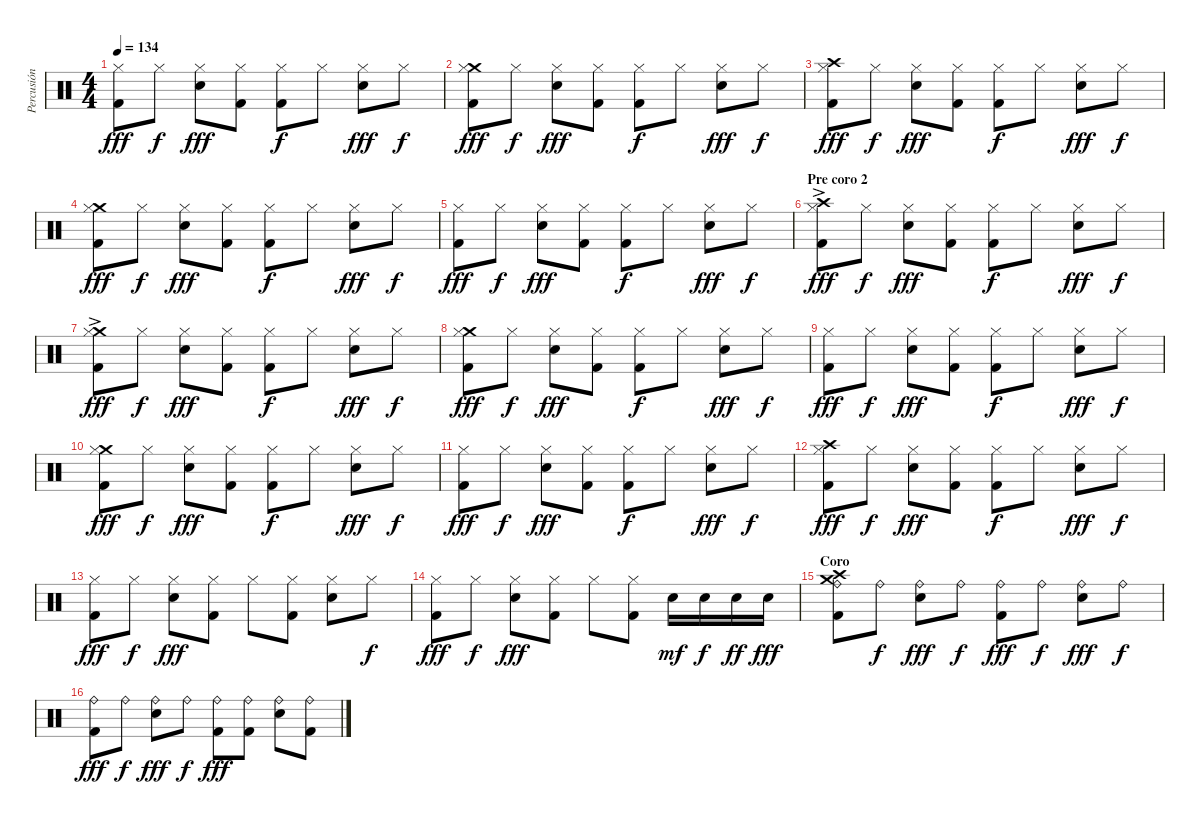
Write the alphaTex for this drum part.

\track ("Percusión" "Percusión") {instrument percussion}
\staff {score}
\articulation defaults
\ts (4 4)
\tempo 134
\clef neutral
\ks c
("Hi-Hat (closed)" "Kick (hit) 2").8{dy fff} "Hi-Hat (closed)".8{dy f} ("Hi-Hat (closed)" "Electric Snare (hit)").8{dy fff} ("Hi-Hat (closed)" "Kick (hit) 2").8 ("Hi-Hat (closed)" "Kick (hit) 2").8{dy f} "Hi-Hat (closed)".8 ("Hi-Hat (closed)" "Electric Snare (hit)").8{dy fff} "Hi-Hat (closed)".8{dy f} |
("Crash medium (hit)" "Hi-Hat (closed)" "Kick (hit) 2").8{dy fff} "Hi-Hat (closed)".8{dy f} ("Hi-Hat (closed)" "Electric Snare (hit)").8{dy fff} ("Hi-Hat (closed)" "Kick (hit) 2").8 ("Hi-Hat (closed)" "Kick (hit) 2").8{dy f} "Hi-Hat (closed)".8 ("Hi-Hat (closed)" "Electric Snare (hit)").8{dy fff} "Hi-Hat (closed)".8{dy f} |
("Crash high (hit)" "Hi-Hat (closed)" "Kick (hit) 2").8{dy fff} "Hi-Hat (closed)".8{dy f} ("Hi-Hat (closed)" "Electric Snare (hit)").8{dy fff} ("Hi-Hat (closed)" "Kick (hit) 2").8 ("Hi-Hat (closed)" "Kick (hit) 2").8{dy f} "Hi-Hat (closed)".8 ("Hi-Hat (closed)" "Electric Snare (hit)").8{dy fff} "Hi-Hat (closed)".8{dy f} |
("Crash medium (hit)" "Hi-Hat (closed)" "Kick (hit) 2").8{dy fff} "Hi-Hat (closed)".8{dy f} ("Hi-Hat (closed)" "Electric Snare (hit)").8{dy fff} ("Hi-Hat (closed)" "Kick (hit) 2").8 ("Hi-Hat (closed)" "Kick (hit) 2").8{dy f} "Hi-Hat (closed)".8 ("Hi-Hat (closed)" "Electric Snare (hit)").8{dy fff} "Hi-Hat (closed)".8{dy f} |
("Hi-Hat (closed)" "Kick (hit) 2").8{dy fff} "Hi-Hat (closed)".8{dy f} ("Hi-Hat (closed)" "Electric Snare (hit)").8{dy fff} ("Hi-Hat (closed)" "Kick (hit) 2").8 ("Hi-Hat (closed)" "Kick (hit) 2").8{dy f} "Hi-Hat (closed)".8 ("Hi-Hat (closed)" "Electric Snare (hit)").8{dy fff} "Hi-Hat (closed)".8{dy f} |
\section ("" "Pre coro 2")
("Crash high (hit)"{ac} "Hi-Hat (closed)" "Kick (hit) 2").8{dy fff} "Hi-Hat (closed)".8{dy f} ("Hi-Hat (closed)" "Electric Snare (hit)").8{dy fff} ("Hi-Hat (closed)" "Kick (hit) 2").8 ("Hi-Hat (closed)" "Kick (hit) 2").8{dy f} "Hi-Hat (closed)".8 ("Hi-Hat (closed)" "Electric Snare (hit)").8{dy fff} "Hi-Hat (closed)".8{dy f} |
("Crash medium (hit)"{ac} "Hi-Hat (closed)" "Kick (hit) 2").8{dy fff} "Hi-Hat (closed)".8{dy f} ("Hi-Hat (closed)" "Electric Snare (hit)").8{dy fff} ("Hi-Hat (closed)" "Kick (hit) 2").8 ("Hi-Hat (closed)" "Kick (hit) 2").8{dy f} "Hi-Hat (closed)".8 ("Hi-Hat (closed)" "Electric Snare (hit)").8{dy fff} "Hi-Hat (closed)".8{dy f} |
("Crash medium (hit)" "Hi-Hat (closed)" "Kick (hit) 2").8{dy fff} "Hi-Hat (closed)".8{dy f} ("Hi-Hat (closed)" "Electric Snare (hit)").8{dy fff} ("Hi-Hat (closed)" "Kick (hit) 2").8 ("Hi-Hat (closed)" "Kick (hit) 2").8{dy f} "Hi-Hat (closed)".8 ("Hi-Hat (closed)" "Electric Snare (hit)").8{dy fff} "Hi-Hat (closed)".8{dy f} |
("Hi-Hat (closed)" "Kick (hit) 2").8{dy fff} "Hi-Hat (closed)".8{dy f} ("Hi-Hat (closed)" "Electric Snare (hit)").8{dy fff} ("Hi-Hat (closed)" "Kick (hit) 2").8 ("Hi-Hat (closed)" "Kick (hit) 2").8{dy f} "Hi-Hat (closed)".8 ("Hi-Hat (closed)" "Electric Snare (hit)").8{dy fff} "Hi-Hat (closed)".8{dy f} |
("Crash medium (hit)" "Hi-Hat (closed)" "Kick (hit) 2").8{dy fff} "Hi-Hat (closed)".8{dy f} ("Hi-Hat (closed)" "Electric Snare (hit)").8{dy fff} ("Hi-Hat (closed)" "Kick (hit) 2").8 ("Hi-Hat (closed)" "Kick (hit) 2").8{dy f} "Hi-Hat (closed)".8 ("Hi-Hat (closed)" "Electric Snare (hit)").8{dy fff} "Hi-Hat (closed)".8{dy f} |
("Hi-Hat (closed)" "Kick (hit) 2").8{dy fff} "Hi-Hat (closed)".8{dy f} ("Hi-Hat (closed)" "Electric Snare (hit)").8{dy fff} ("Hi-Hat (closed)" "Kick (hit) 2").8 ("Hi-Hat (closed)" "Kick (hit) 2").8{dy f} "Hi-Hat (closed)".8 ("Hi-Hat (closed)" "Electric Snare (hit)").8{dy fff} "Hi-Hat (closed)".8{dy f} |
("Crash high (hit)" "Hi-Hat (closed)" "Kick (hit) 2").8{dy fff} "Hi-Hat (closed)".8{dy f} ("Hi-Hat (closed)" "Electric Snare (hit)").8{dy fff} ("Hi-Hat (closed)" "Kick (hit) 2").8 ("Hi-Hat (closed)" "Kick (hit) 2").8{dy f} "Hi-Hat (closed)".8 ("Hi-Hat (closed)" "Electric Snare (hit)").8{dy fff} "Hi-Hat (closed)".8{dy f} |
("Hi-Hat (closed)" "Kick (hit) 2").8{dy fff} "Hi-Hat (closed)".8{dy f} ("Hi-Hat (closed)" "Electric Snare (hit)").8{dy fff} ("Hi-Hat (closed)" "Kick (hit) 2").8 "Hi-Hat (closed)".8 ("Hi-Hat (closed)" "Kick (hit) 2").8 ("Hi-Hat (closed)" "Electric Snare (hit)").8 "Hi-Hat (closed)".8{dy f} |
("Hi-Hat (closed)" "Kick (hit) 2").8{dy fff} "Hi-Hat (closed)".8{dy f} ("Hi-Hat (closed)" "Electric Snare (hit)").8{dy fff} ("Hi-Hat (closed)" "Kick (hit) 2").8 "Hi-Hat (closed)".8 ("Hi-Hat (closed)" "Kick (hit) 2").8 "Electric Snare (hit)".16{dy mf} "Electric Snare (hit)".16{dy f} "Electric Snare (hit)".16{dy ff} "Electric Snare (hit)".16{dy fff} |
\section ("" "Coro")
("Crash medium (hit)" "Crash high (hit)" "Ride (bell)" "Kick (hit) 2").8 "Ride (bell)".8{dy f} ("Ride (bell)" "Electric Snare (hit)").8{dy fff} "Ride (bell)".8{dy f} ("Ride (bell)" "Kick (hit) 2").8{dy fff} "Ride (bell)".8{dy f} ("Ride (bell)" "Electric Snare (hit)").8{dy fff} "Ride (bell)".8{dy f} |
("Ride (bell)" "Kick (hit) 2").8{dy fff} "Ride (bell)".8{dy f} ("Ride (bell)" "Electric Snare (hit)").8{dy fff} "Ride (bell)".8{dy f} ("Ride (bell)" "Kick (hit) 2").8{dy fff} ("Ride (bell)" "Kick (hit) 2").8 ("Ride (bell)" "Electric Snare (hit)").8 ("Ride (bell)" "Kick (hit) 2").8
